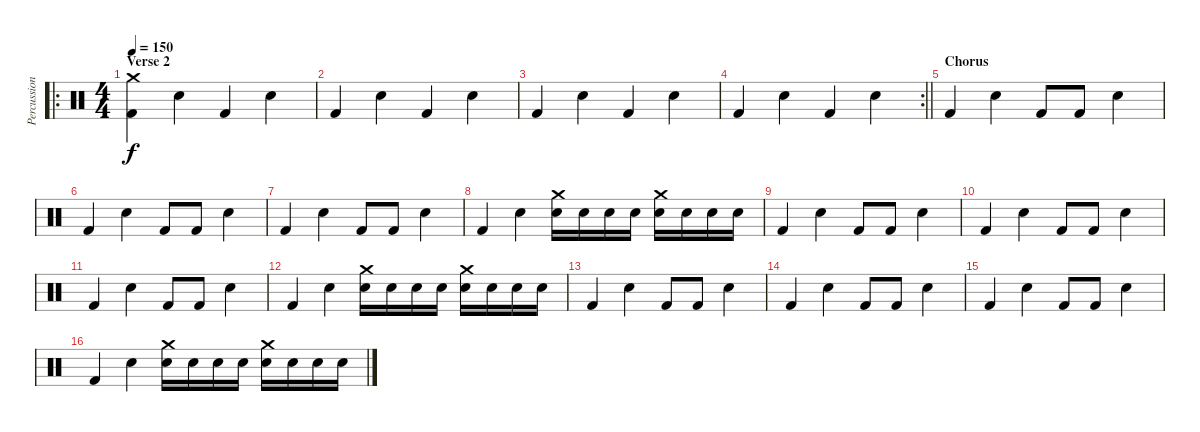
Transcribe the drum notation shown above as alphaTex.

\track ("Percussion" "Percussion") {instrument percussion bank 255}
\staff {score}
\articulation defaults
\ro
\ts (4 4)
\section ("" "Verse 2")
\tempo 150
\clef neutral
\ks c
("Crash medium (hit)" "Kick (hit) 2").4{dy f} "Electric Snare (hit)".4 "Kick (hit) 2".4 "Electric Snare (hit)".4 |
"Kick (hit) 2".4 "Electric Snare (hit)".4 "Kick (hit) 2".4 "Electric Snare (hit)".4 |
"Kick (hit) 2".4 "Electric Snare (hit)".4 "Kick (hit) 2".4 "Electric Snare (hit)".4 |
\rc 2
\barLineRight lightlight "Kick (hit) 2".4 "Electric Snare (hit)".4 "Kick (hit) 2".4 "Electric Snare (hit)".4
|
\section ("" "Chorus")
"Kick (hit) 2".4 "Electric Snare (hit)".4 "Kick (hit) 2".8 "Kick (hit) 2".8 "Electric Snare (hit)".4 |
"Kick (hit) 2".4 "Electric Snare (hit)".4 "Kick (hit) 2".8 "Kick (hit) 2".8 "Electric Snare (hit)".4 |
"Kick (hit) 2".4 "Electric Snare (hit)".4 "Kick (hit) 2".8 "Kick (hit) 2".8 "Electric Snare (hit)".4 |
"Kick (hit) 2".4 "Electric Snare (hit)".4 ("Crash medium (hit)" "Electric Snare (hit)").16 "Electric Snare (hit)".16 "Electric Snare (hit)".16 "Electric Snare (hit)".16 ("Crash medium (hit)" "Electric Snare (hit)").16 "Electric Snare (hit)".16 "Electric Snare (hit)".16 "Electric Snare (hit)".16 |
"Kick (hit) 2".4 "Electric Snare (hit)".4 "Kick (hit) 2".8 "Kick (hit) 2".8 "Electric Snare (hit)".4 |
"Kick (hit) 2".4 "Electric Snare (hit)".4 "Kick (hit) 2".8 "Kick (hit) 2".8 "Electric Snare (hit)".4 |
"Kick (hit) 2".4 "Electric Snare (hit)".4 "Kick (hit) 2".8 "Kick (hit) 2".8 "Electric Snare (hit)".4 |
"Kick (hit) 2".4 "Electric Snare (hit)".4 ("Crash medium (hit)" "Electric Snare (hit)").16 "Electric Snare (hit)".16 "Electric Snare (hit)".16 "Electric Snare (hit)".16 ("Crash medium (hit)" "Electric Snare (hit)").16 "Electric Snare (hit)".16 "Electric Snare (hit)".16 "Electric Snare (hit)".16 |
"Kick (hit) 2".4 "Electric Snare (hit)".4 "Kick (hit) 2".8 "Kick (hit) 2".8 "Electric Snare (hit)".4 |
"Kick (hit) 2".4 "Electric Snare (hit)".4 "Kick (hit) 2".8 "Kick (hit) 2".8 "Electric Snare (hit)".4 |
"Kick (hit) 2".4 "Electric Snare (hit)".4 "Kick (hit) 2".8 "Kick (hit) 2".8 "Electric Snare (hit)".4 |
"Kick (hit) 2".4 "Electric Snare (hit)".4 ("Crash medium (hit)" "Electric Snare (hit)").16 "Electric Snare (hit)".16 "Electric Snare (hit)".16 "Electric Snare (hit)".16 ("Crash medium (hit)" "Electric Snare (hit)").16 "Electric Snare (hit)".16 "Electric Snare (hit)".16 "Electric Snare (hit)".16
